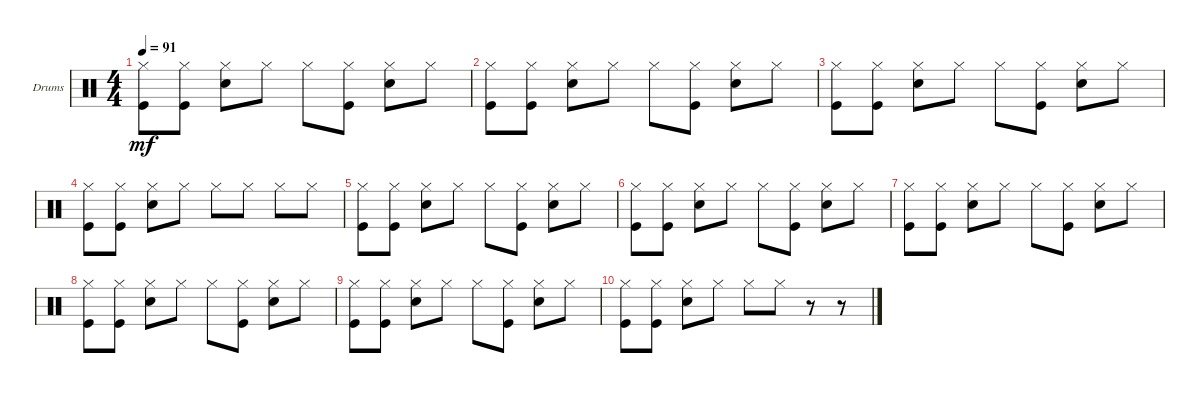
\defaultSystemsLayout 4
\bracketExtendMode groupsimilarinstruments
\firstSystemTrackNameOrientation horizontal
\otherSystemsTrackNameOrientation horizontal
\track ("Drumkit" "Drums") {instrument percussion}
\staff {score}
\articulation defaults
\ts (4 4)
\tempo 91
\clef neutral
\ks c
("Kick (hit)" "Hi-Hat (closed)").8{dy mf} ("Kick (hit)" "Hi-Hat (closed)").8 ("Hi-Hat (closed)" "Snare (hit) 2").8 "Hi-Hat (closed)".8 "Hi-Hat (closed)".8 ("Kick (hit)" "Hi-Hat (closed)").8 ("Hi-Hat (closed)" "Snare (hit) 2").8 "Hi-Hat (closed)".8 |
("Kick (hit)" "Hi-Hat (closed)").8 ("Kick (hit)" "Hi-Hat (closed)").8 ("Hi-Hat (closed)" "Snare (hit) 2").8 "Hi-Hat (closed)".8 "Hi-Hat (closed)".8 ("Kick (hit)" "Hi-Hat (closed)").8 ("Hi-Hat (closed)" "Snare (hit) 2").8 "Hi-Hat (closed)".8 |
("Kick (hit)" "Hi-Hat (closed)").8 ("Kick (hit)" "Hi-Hat (closed)").8 ("Hi-Hat (closed)" "Snare (hit) 2").8 "Hi-Hat (closed)".8 "Hi-Hat (closed)".8 ("Kick (hit)" "Hi-Hat (closed)").8 ("Hi-Hat (closed)" "Snare (hit) 2").8 "Hi-Hat (closed)".8 |
("Kick (hit)" "Hi-Hat (closed)").8 ("Kick (hit)" "Hi-Hat (closed)").8 ("Hi-Hat (closed)" "Snare (hit) 2").8 "Hi-Hat (closed)".8 "Hi-Hat (closed)".8 "Hi-Hat (closed)".8 "Hi-Hat (closed)".8 "Hi-Hat (closed)".8 |
("Kick (hit)" "Hi-Hat (closed)").8 ("Kick (hit)" "Hi-Hat (closed)").8 ("Hi-Hat (closed)" "Snare (hit) 2").8 "Hi-Hat (closed)".8 "Hi-Hat (closed)".8 ("Kick (hit)" "Hi-Hat (closed)").8 ("Hi-Hat (closed)" "Snare (hit) 2").8 "Hi-Hat (closed)".8 |
("Kick (hit)" "Hi-Hat (closed)").8 ("Kick (hit)" "Hi-Hat (closed)").8 ("Hi-Hat (closed)" "Snare (hit) 2").8 "Hi-Hat (closed)".8 "Hi-Hat (closed)".8 ("Kick (hit)" "Hi-Hat (closed)").8 ("Hi-Hat (closed)" "Snare (hit) 2").8 "Hi-Hat (closed)".8 |
("Kick (hit)" "Hi-Hat (closed)").8 ("Kick (hit)" "Hi-Hat (closed)").8 ("Hi-Hat (closed)" "Snare (hit) 2").8 "Hi-Hat (closed)".8 "Hi-Hat (closed)".8 ("Kick (hit)" "Hi-Hat (closed)").8 ("Hi-Hat (closed)" "Snare (hit) 2").8 "Hi-Hat (closed)".8 |
("Kick (hit)" "Hi-Hat (closed)").8 ("Kick (hit)" "Hi-Hat (closed)").8 ("Hi-Hat (closed)" "Snare (hit) 2").8 "Hi-Hat (closed)".8 "Hi-Hat (closed)".8 ("Kick (hit)" "Hi-Hat (closed)").8 ("Hi-Hat (closed)" "Snare (hit) 2").8 "Hi-Hat (closed)".8 |
("Kick (hit)" "Hi-Hat (closed)").8 ("Kick (hit)" "Hi-Hat (closed)").8 ("Hi-Hat (closed)" "Snare (hit) 2").8 "Hi-Hat (closed)".8 "Hi-Hat (closed)".8 ("Kick (hit)" "Hi-Hat (closed)").8 ("Hi-Hat (closed)" "Snare (hit) 2").8 "Hi-Hat (closed)".8 |
("Kick (hit)" "Hi-Hat (closed)").8 ("Kick (hit)" "Hi-Hat (closed)").8 ("Hi-Hat (closed)" "Snare (hit) 2").8 "Hi-Hat (closed)".8 "Hi-Hat (closed)".8 "Hi-Hat (closed)".8 r.8 r.8
